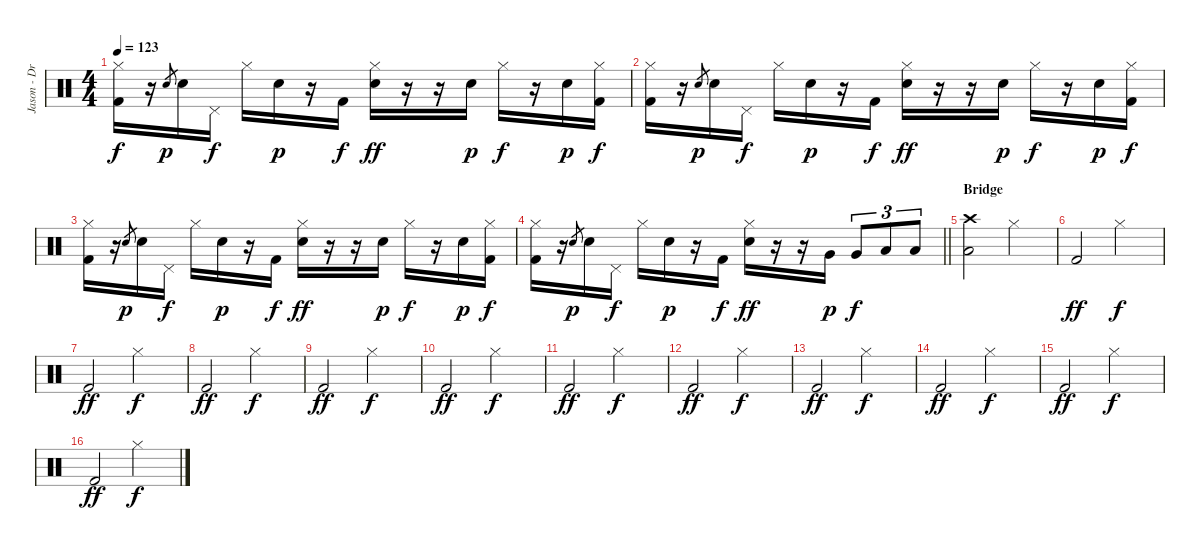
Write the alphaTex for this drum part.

\track ("Jason - Drums" "Jason - Dr") {instrument percussion}
\staff {score}
\articulation defaults
\ts (4 4)
\tempo 123
\clef neutral
\ks c
("Hi-Hat (closed)" "Kick (hit) 2").16{dy f} r.16 "Snare (hit) 2".8{gr dy p} "Snare (hit) 2".16 "Pedal Hi-Hat (hit)".16{dy f} "Hi-Hat (closed)".16 "Snare (hit) 2".16{dy p} r.16 "Kick (hit) 2".16{dy f} ("Hi-Hat (closed)" "Electric Snare (hit)").16{dy ff} r.16 r.16 "Snare (hit) 2".16{dy p} "Hi-Hat (closed)".16{dy f} r.16 "Snare (hit) 2".16{dy p} ("Hi-Hat (closed)" "Kick (hit) 2").16{dy f} |
("Hi-Hat (closed)" "Kick (hit) 2").16 r.16 "Snare (hit) 2".8{gr dy p} "Snare (hit) 2".16 "Pedal Hi-Hat (hit)".16{dy f} "Hi-Hat (closed)".16 "Snare (hit) 2".16{dy p} r.16 "Kick (hit) 2".16{dy f} ("Hi-Hat (closed)" "Electric Snare (hit)").16{dy ff} r.16 r.16 "Snare (hit) 2".16{dy p} "Hi-Hat (closed)".16{dy f} r.16 "Snare (hit) 2".16{dy p} ("Hi-Hat (closed)" "Kick (hit) 2").16{dy f} |
("Hi-Hat (closed)" "Kick (hit) 2").16 r.16 "Snare (hit) 2".8{gr dy p} "Snare (hit) 2".16 "Pedal Hi-Hat (hit)".16{dy f} "Hi-Hat (closed)".16 "Snare (hit) 2".16{dy p} r.16 "Kick (hit) 2".16{dy f} ("Hi-Hat (closed)" "Electric Snare (hit)").16{dy ff} r.16 r.16 "Snare (hit) 2".16{dy p} "Hi-Hat (closed)".16{dy f} r.16 "Snare (hit) 2".16{dy p} ("Hi-Hat (closed)" "Kick (hit) 2").16{dy f} |
\barLineRight lightlight
("Hi-Hat (closed)" "Kick (hit) 2").16 r.16 "Snare (hit) 2".8{gr dy p} "Snare (hit) 2".16 "Pedal Hi-Hat (hit)".16{dy f} "Hi-Hat (closed)".16 "Snare (hit) 2".16{dy p} r.16 "Kick (hit) 2".16{dy f} ("Hi-Hat (closed)" "Electric Snare (hit)").16{dy ff} r.16 r.16 "Very Low Tom (hit)".16{dy p} "Very Low Tom (hit)".8{tu (3 2) dy f} "Low Floor Tom (hit)".8{tu (3 2)} "Low Floor Tom (hit)".8{tu (3 2)} |
\section ("" "Bridge")
("Crash high (hit)" "Low Floor Tom (hit)").2 "Hi-Hat (closed)".2 |
"Kick (hit) 2".2{dy ff} "Hi-Hat (closed)".2{dy f} |
"Kick (hit) 2".2{dy ff} "Hi-Hat (closed)".2{dy f} |
"Kick (hit) 2".2{dy ff} "Hi-Hat (closed)".2{dy f} |
"Kick (hit) 2".2{dy ff} "Hi-Hat (closed)".2{dy f} |
"Kick (hit) 2".2{dy ff} "Hi-Hat (closed)".2{dy f} |
"Kick (hit) 2".2{dy ff} "Hi-Hat (closed)".2{dy f} |
"Kick (hit) 2".2{dy ff} "Hi-Hat (closed)".2{dy f} |
"Kick (hit) 2".2{dy ff} "Hi-Hat (closed)".2{dy f} |
"Kick (hit) 2".2{dy ff} "Hi-Hat (closed)".2{dy f} |
"Kick (hit) 2".2{dy ff} "Hi-Hat (closed)".2{dy f} |
"Kick (hit) 2".2{dy ff} "Hi-Hat (closed)".2{dy f}
